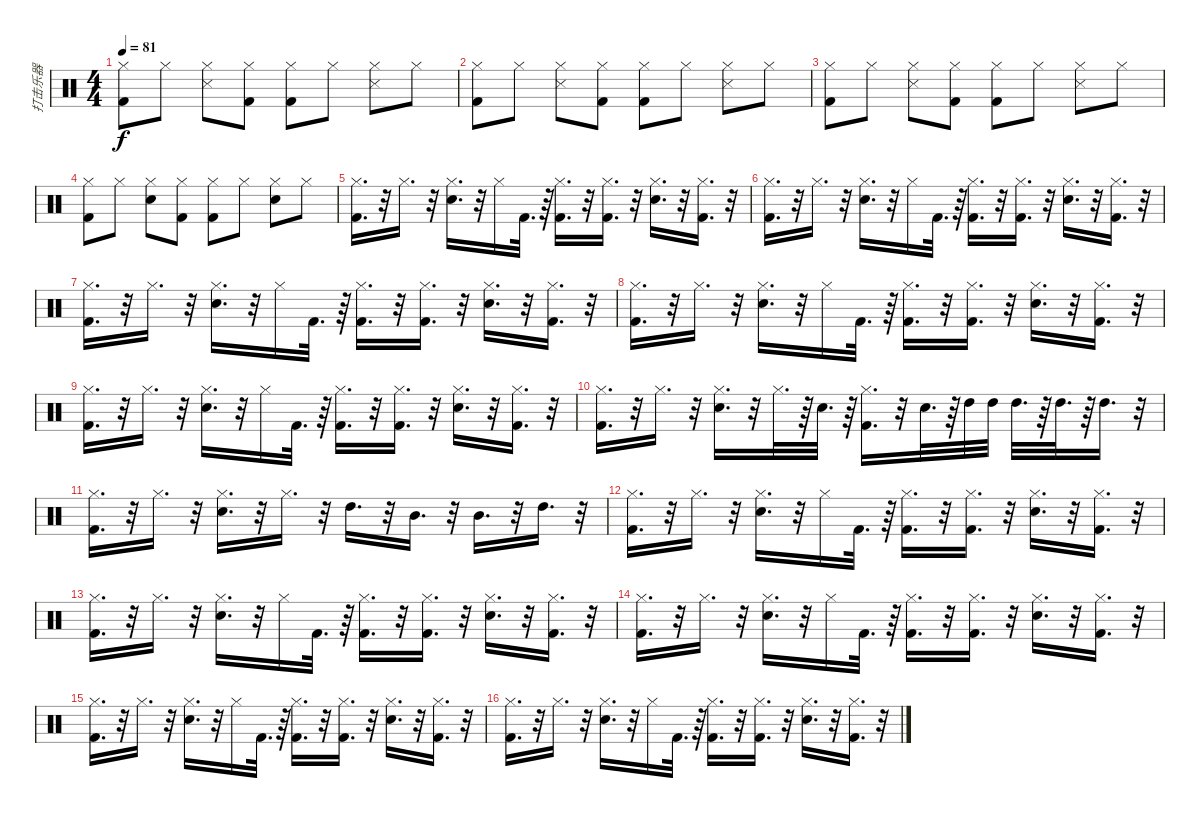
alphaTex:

\track ("打击乐器" "打击乐器") {instrument percussion}
\staff {score}
\articulation defaults
\ts (4 4)
\tempo 81
\clef neutral
\ks c
("Kick (hit) 2" "Hi-Hat (closed)").8{dy f} "Hi-Hat (closed)".8 ("Snare (side stick) 3" "Hi-Hat (closed)").8 ("Kick (hit) 2" "Hi-Hat (closed)").8 ("Kick (hit) 2" "Hi-Hat (closed)").8 "Hi-Hat (closed)".8 ("Snare (side stick) 3" "Hi-Hat (closed)").8 "Hi-Hat (closed)".8 |
("Kick (hit) 2" "Hi-Hat (closed)").8 "Hi-Hat (closed)".8 ("Snare (side stick) 3" "Hi-Hat (closed)").8 ("Kick (hit) 2" "Hi-Hat (closed)").8 ("Kick (hit) 2" "Hi-Hat (closed)").8 "Hi-Hat (closed)".8 ("Snare (side stick) 3" "Hi-Hat (closed)").8 "Hi-Hat (closed)".8 |
("Kick (hit) 2" "Hi-Hat (closed)").8 "Hi-Hat (closed)".8 ("Snare (side stick) 3" "Hi-Hat (closed)").8 ("Kick (hit) 2" "Hi-Hat (closed)").8 ("Kick (hit) 2" "Hi-Hat (closed)").8 "Hi-Hat (closed)".8 ("Snare (side stick) 3" "Hi-Hat (closed)").8 "Hi-Hat (closed)".8 |
("Hi-Hat (closed)" "Kick (hit) 2").8 "Hi-Hat (closed)".8 ("Snare (hit) 2" "Hi-Hat (closed)").8 ("Hi-Hat (closed)" "Kick (hit) 2").8 ("Hi-Hat (closed)" "Kick (hit) 2").8 "Hi-Hat (closed)".8 ("Snare (hit) 2" "Hi-Hat (closed)").8 "Hi-Hat (closed)".8 |
("Kick (hit) 2" "Hi-Hat (closed)").16{d} r.32 "Hi-Hat (closed)".16{d} r.32 ("Hi-Hat (closed)" "Snare (hit) 2").16{d} r.32 "Hi-Hat (closed)".16 "Kick (hit) 2".32{d} r.64 ("Hi-Hat (closed)" "Kick (hit) 2").16{d} r.32 ("Hi-Hat (closed)" "Kick (hit) 2").16{d} r.32 ("Snare (hit) 2" "Hi-Hat (closed)").16{d} r.32 ("Kick (hit) 2" "Hi-Hat (closed)").16{d} r.32 |
("Kick (hit) 2" "Hi-Hat (closed)").16{d} r.32 "Hi-Hat (closed)".16{d} r.32 ("Hi-Hat (closed)" "Snare (hit) 2").16{d} r.32 "Hi-Hat (closed)".16 "Kick (hit) 2".32{d} r.64 ("Hi-Hat (closed)" "Kick (hit) 2").16{d} r.32 ("Hi-Hat (closed)" "Kick (hit) 2").16{d} r.32 ("Hi-Hat (closed)" "Snare (hit) 2").16{d} r.32 ("Kick (hit) 2" "Hi-Hat (closed)").16{d} r.32 |
("Kick (hit) 2" "Hi-Hat (closed)").16{d} r.32 "Hi-Hat (closed)".16{d} r.32 ("Snare (hit) 2" "Hi-Hat (closed)").16{d} r.32 "Hi-Hat (closed)".16 "Kick (hit) 2".32{d} r.64 ("Hi-Hat (closed)" "Kick (hit) 2").16{d} r.32 ("Hi-Hat (closed)" "Kick (hit) 2").16{d} r.32 ("Snare (hit) 2" "Hi-Hat (closed)").16{d} r.32 ("Hi-Hat (closed)" "Kick (hit) 2").16{d} r.32 |
("Kick (hit) 2" "Hi-Hat (closed)").16{d} r.32 "Hi-Hat (closed)".16{d} r.32 ("Snare (hit) 2" "Hi-Hat (closed)").16{d} r.32 "Hi-Hat (closed)".16 "Kick (hit) 2".32{d} r.64 ("Hi-Hat (closed)" "Kick (hit) 2").16{d} r.32 ("Hi-Hat (closed)" "Kick (hit) 2").16{d} r.32 ("Snare (hit) 2" "Hi-Hat (closed)").16{d} r.32 ("Kick (hit) 2" "Hi-Hat (closed)").16{d} r.32 |
("Kick (hit) 2" "Hi-Hat (closed)").16{d} r.32 "Hi-Hat (closed)".16{d} r.32 ("Hi-Hat (closed)" "Snare (hit) 2").16{d} r.32 "Hi-Hat (closed)".16 "Kick (hit) 2".32{d} r.64 ("Kick (hit) 2" "Hi-Hat (closed)").16{d} r.32 ("Kick (hit) 2" "Hi-Hat (closed)").16{d} r.32 ("Hi-Hat (closed)" "Snare (hit) 2").16{d} r.32 ("Hi-Hat (closed)" "Kick (hit) 2").16{d} r.32 |
("Hi-Hat (closed)" "Kick (hit) 2").16{d} r.32 "Hi-Hat (closed)".16{d} r.32 ("Hi-Hat (closed)" "Snare (hit) 2").16{d} r.32 "Hi-Hat (closed)".32{d} r.64 "Snare (hit) 2".32{d} r.64 ("Hi-Hat (closed)" "Kick (hit) 2").16{d} r.32 "Snare (hit) 2".32{d} r.64 "High Tom (hit)".32 "High Tom (hit)".32 "High Tom (hit)".32{d} r.64 "High Tom (hit)".32{d} r.64 "High Tom (hit)".16{d} r.32 |
("Kick (hit) 2" "Hi-Hat (closed)").16{d} r.32 "Hi-Hat (closed)".16{d} r.32 ("Hi-Hat (closed)" "Snare (hit) 2").16{d} r.32 "Hi-Hat (closed)".16{d} r.32 "High Tom (hit)".16{d} r.32 "Mid Tom (hit)".16{d} r.32 "Mid Tom (hit)".16{d} r.32 "High Tom (hit)".16{d} r.32 |
("Hi-Hat (closed)" "Kick (hit) 2").16{d} r.32 "Hi-Hat (closed)".16{d} r.32 ("Snare (hit) 2" "Hi-Hat (closed)").16{d} r.32 "Hi-Hat (closed)".16 "Kick (hit) 2".32{d} r.64 ("Hi-Hat (closed)" "Kick (hit) 2").16{d} r.32 ("Hi-Hat (closed)" "Kick (hit) 2").16{d} r.32 ("Snare (hit) 2" "Hi-Hat (closed)").16{d} r.32 ("Hi-Hat (closed)" "Kick (hit) 2").16{d} r.32 |
("Hi-Hat (closed)" "Kick (hit) 2").16{d} r.32 "Hi-Hat (closed)".16{d} r.32 ("Hi-Hat (closed)" "Snare (hit) 2").16{d} r.32 "Hi-Hat (closed)".16 "Kick (hit) 2".32{d} r.64 ("Hi-Hat (closed)" "Kick (hit) 2").16{d} r.32 ("Hi-Hat (closed)" "Kick (hit) 2").16{d} r.32 ("Snare (hit) 2" "Hi-Hat (closed)").16{d} r.32 ("Kick (hit) 2" "Hi-Hat (closed)").16{d} r.32 |
("Hi-Hat (closed)" "Kick (hit) 2").16{d} r.32 "Hi-Hat (closed)".16{d} r.32 ("Snare (hit) 2" "Hi-Hat (closed)").16{d} r.32 "Hi-Hat (closed)".16 "Kick (hit) 2".32{d} r.64 ("Hi-Hat (closed)" "Kick (hit) 2").16{d} r.32 ("Hi-Hat (closed)" "Kick (hit) 2").16{d} r.32 ("Snare (hit) 2" "Hi-Hat (closed)").16{d} r.32 ("Hi-Hat (closed)" "Kick (hit) 2").16{d} r.32 |
("Hi-Hat (closed)" "Kick (hit) 2").16{d} r.32 "Hi-Hat (closed)".16{d} r.32 ("Hi-Hat (closed)" "Snare (hit) 2").16{d} r.32 "Hi-Hat (closed)".16 "Kick (hit) 2".32{d} r.64 ("Kick (hit) 2" "Hi-Hat (closed)").16{d} r.32 ("Kick (hit) 2" "Hi-Hat (closed)").16{d} r.32 ("Hi-Hat (closed)" "Snare (hit) 2").16{d} r.32 ("Kick (hit) 2" "Hi-Hat (closed)").16{d} r.32 |
("Hi-Hat (closed)" "Kick (hit) 2").16{d} r.32 "Hi-Hat (closed)".16{d} r.32 ("Hi-Hat (closed)" "Snare (hit) 2").16{d} r.32 "Hi-Hat (closed)".16 "Kick (hit) 2".32{d} r.64 ("Hi-Hat (closed)" "Kick (hit) 2").16{d} r.32 ("Hi-Hat (closed)" "Kick (hit) 2").16{d} r.32 ("Snare (hit) 2" "Hi-Hat (closed)").16{d} r.32 ("Hi-Hat (closed)" "Kick (hit) 2").16{d} r.32
